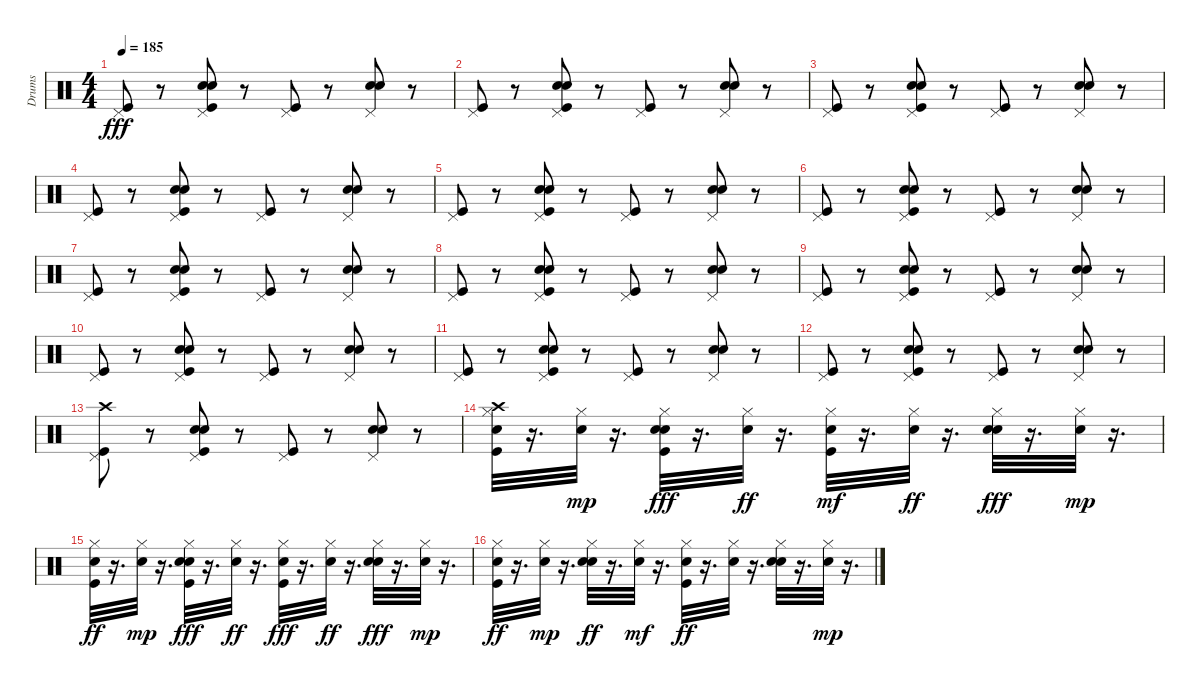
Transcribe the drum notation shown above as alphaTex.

\track ("Drums" "Drums") {instrument percussion}
\staff {score}
\articulation defaults
\ts (4 4)
\tempo 185
\clef neutral
\ks c
("Pedal Hi-Hat (hit)" "Kick (hit)").8{dy fff} r.8 ("Pedal Hi-Hat (hit)" "Kick (hit)" "Hand Clap (hit)" "Snare (hit) 2").8 r.8 ("Pedal Hi-Hat (hit)" "Kick (hit)").8 r.8 ("Snare (hit) 2" "Pedal Hi-Hat (hit)" "Hand Clap (hit)").8 r.8 |
("Pedal Hi-Hat (hit)" "Kick (hit)").8 r.8 ("Pedal Hi-Hat (hit)" "Kick (hit)" "Hand Clap (hit)" "Snare (hit) 2").8 r.8 ("Pedal Hi-Hat (hit)" "Kick (hit)").8 r.8 ("Snare (hit) 2" "Pedal Hi-Hat (hit)" "Hand Clap (hit)").8 r.8 |
("Pedal Hi-Hat (hit)" "Kick (hit)").8 r.8 ("Pedal Hi-Hat (hit)" "Kick (hit)" "Hand Clap (hit)" "Snare (hit) 2").8 r.8 ("Pedal Hi-Hat (hit)" "Kick (hit)").8 r.8 ("Snare (hit) 2" "Pedal Hi-Hat (hit)" "Hand Clap (hit)").8 r.8 |
("Pedal Hi-Hat (hit)" "Kick (hit)").8 r.8 ("Pedal Hi-Hat (hit)" "Kick (hit)" "Hand Clap (hit)" "Snare (hit) 2").8 r.8 ("Pedal Hi-Hat (hit)" "Kick (hit)").8 r.8 ("Snare (hit) 2" "Pedal Hi-Hat (hit)" "Hand Clap (hit)").8 r.8 |
("Pedal Hi-Hat (hit)" "Kick (hit)").8 r.8 ("Pedal Hi-Hat (hit)" "Kick (hit)" "Hand Clap (hit)" "Snare (hit) 2").8 r.8 ("Pedal Hi-Hat (hit)" "Kick (hit)").8 r.8 ("Snare (hit) 2" "Pedal Hi-Hat (hit)" "Hand Clap (hit)").8 r.8 |
("Pedal Hi-Hat (hit)" "Kick (hit)").8 r.8 ("Pedal Hi-Hat (hit)" "Kick (hit)" "Hand Clap (hit)" "Snare (hit) 2").8 r.8 ("Pedal Hi-Hat (hit)" "Kick (hit)").8 r.8 ("Snare (hit) 2" "Pedal Hi-Hat (hit)" "Hand Clap (hit)").8 r.8 |
("Pedal Hi-Hat (hit)" "Kick (hit)").8 r.8 ("Pedal Hi-Hat (hit)" "Kick (hit)" "Hand Clap (hit)" "Snare (hit) 2").8 r.8 ("Pedal Hi-Hat (hit)" "Kick (hit)").8 r.8 ("Snare (hit) 2" "Pedal Hi-Hat (hit)" "Hand Clap (hit)").8 r.8 |
("Pedal Hi-Hat (hit)" "Kick (hit)").8 r.8 ("Pedal Hi-Hat (hit)" "Kick (hit)" "Hand Clap (hit)" "Snare (hit) 2").8 r.8 ("Pedal Hi-Hat (hit)" "Kick (hit)").8 r.8 ("Snare (hit) 2" "Pedal Hi-Hat (hit)" "Hand Clap (hit)").8 r.8 |
("Pedal Hi-Hat (hit)" "Kick (hit)").8 r.8 ("Pedal Hi-Hat (hit)" "Kick (hit)" "Hand Clap (hit)" "Snare (hit) 2").8 r.8 ("Pedal Hi-Hat (hit)" "Kick (hit)").8 r.8 ("Snare (hit) 2" "Pedal Hi-Hat (hit)" "Hand Clap (hit)").8 r.8 |
("Pedal Hi-Hat (hit)" "Kick (hit)").8 r.8 ("Pedal Hi-Hat (hit)" "Kick (hit)" "Hand Clap (hit)" "Snare (hit) 2").8 r.8 ("Pedal Hi-Hat (hit)" "Kick (hit)").8 r.8 ("Snare (hit) 2" "Pedal Hi-Hat (hit)" "Hand Clap (hit)").8 r.8 |
("Pedal Hi-Hat (hit)" "Kick (hit)").8 r.8 ("Pedal Hi-Hat (hit)" "Kick (hit)" "Hand Clap (hit)" "Snare (hit) 2").8 r.8 ("Pedal Hi-Hat (hit)" "Kick (hit)").8 r.8 ("Snare (hit) 2" "Pedal Hi-Hat (hit)" "Hand Clap (hit)").8 r.8 |
("Pedal Hi-Hat (hit)" "Kick (hit)").8 r.8 ("Pedal Hi-Hat (hit)" "Kick (hit)" "Hand Clap (hit)" "Snare (hit) 2").8 r.8 ("Pedal Hi-Hat (hit)" "Kick (hit)").8 r.8 ("Snare (hit) 2" "Pedal Hi-Hat (hit)" "Hand Clap (hit)").8 r.8 |
("Pedal Hi-Hat (hit)" "Crash high (hit)" "Kick (hit)").8 r.8 ("Pedal Hi-Hat (hit)" "Kick (hit)" "Hand Clap (hit)" "Snare (hit) 2").8 r.8 ("Pedal Hi-Hat (hit)" "Kick (hit)").8 r.8 ("Snare (hit) 2" "Pedal Hi-Hat (hit)" "Hand Clap (hit)").8 r.8 |
("Crash high (hit)" "Hi-Hat (closed)" "Snare (hit) 2" "Kick (hit)").32 r.16{d} ("Hi-Hat (closed)" "Snare (hit) 2").32{dy mp} r.16{d} ("Hand Clap (hit)" "Kick (hit)" "Hi-Hat (closed)" "Snare (hit) 2").32{dy fff} r.16{d} ("Snare (hit) 2" "Hi-Hat (closed)").32{dy ff} r.16{d} ("Kick (hit)" "Hi-Hat (closed)" "Snare (hit) 2").32{dy mf} r.16{d} ("Snare (hit) 2" "Hi-Hat (closed)").32{dy ff} r.16{d} ("Hi-Hat (closed)" "Snare (hit) 2" "Hand Clap (hit)").32{dy fff} r.16{d} ("Hi-Hat (closed)" "Snare (hit) 2").32{dy mp} r.16{d} |
("Snare (hit) 2" "Kick (hit)" "Hi-Hat (closed)").32{dy ff} r.16{d} ("Hi-Hat (closed)" "Snare (hit) 2").32{dy mp} r.16{d} ("Hand Clap (hit)" "Hi-Hat (closed)" "Kick (hit)" "Snare (hit) 2").32{dy fff} r.16{d} ("Snare (hit) 2" "Hi-Hat (closed)").32{dy ff} r.16{d} ("Snare (hit) 2" "Hi-Hat (closed)" "Kick (hit)").32{dy fff} r.16{d} ("Snare (hit) 2" "Hi-Hat (closed)").32{dy ff} r.16{d} ("Hi-Hat (closed)" "Hand Clap (hit)" "Snare (hit) 2").32{dy fff} r.16{d} ("Hi-Hat (closed)" "Snare (hit) 2").32{dy mp} r.16{d} |
("Kick (hit)" "Snare (hit) 2" "Hi-Hat (closed)").32{dy ff} r.16{d} ("Hi-Hat (closed)" "Snare (hit) 2").32{dy mp} r.16{d} ("Snare (hit) 2" "Hand Clap (hit)" "Hi-Hat (closed)").32{dy ff} r.16{d} ("Hi-Hat (closed)" "Snare (hit) 2").32{dy mf} r.16{d} ("Snare (hit) 2" "Kick (hit)" "Hi-Hat (closed)").32{dy ff} r.16{d} ("Snare (hit) 2" "Hi-Hat (closed)").32 r.16{d} ("Snare (hit) 2" "Hand Clap (hit)" "Hi-Hat (closed)").32 r.16{d} ("Hi-Hat (closed)" "Snare (hit) 2").32{dy mp} r.16{d}
